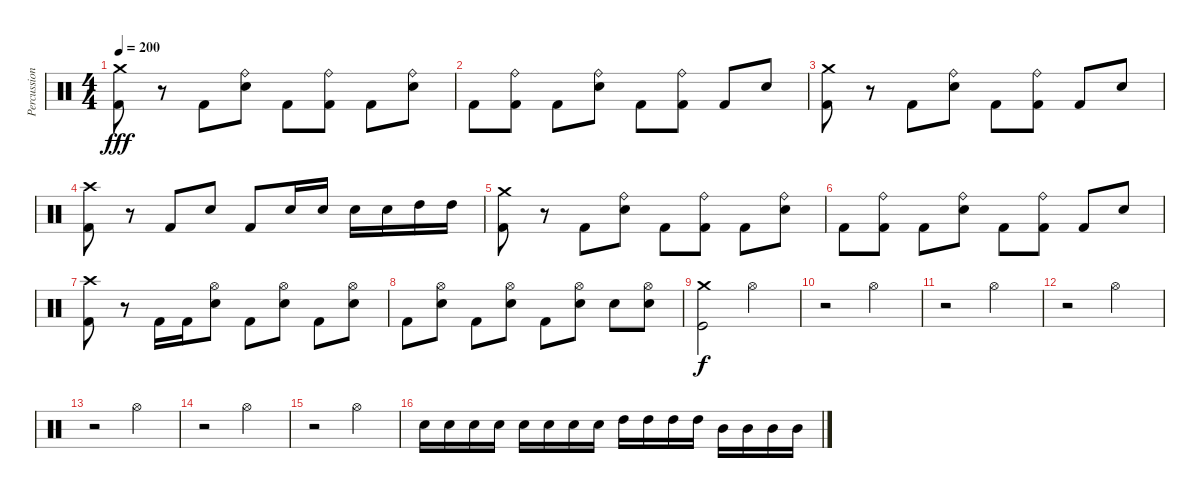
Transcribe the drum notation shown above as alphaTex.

\track ("Percussion" "Percussion") {instrument percussion}
\staff {score}
\articulation defaults
\ts (4 4)
\tempo 200
\clef neutral
\ks c
("Crash medium (hit)" "Kick (hit) 2").8{dy fff} r.8 "Kick (hit) 2".8 ("Ride (bell)" "Snare (hit) 2").8 "Kick (hit) 2".8 ("Ride (bell)" "Kick (hit) 2").8 "Kick (hit) 2".8 ("Ride (bell)" "Snare (hit) 2").8 |
"Kick (hit) 2".8 ("Ride (bell)" "Kick (hit) 2").8 "Kick (hit) 2".8 ("Ride (bell)" "Snare (hit) 2").8 "Kick (hit) 2".8 ("Ride (bell)" "Kick (hit) 2").8 "Kick (hit) 2".8 "Snare (hit) 2".8 |
("Crash medium (hit)" "Kick (hit) 2").8 r.8 "Kick (hit) 2".8 ("Ride (bell)" "Snare (hit) 2").8 "Kick (hit) 2".8 ("Ride (bell)" "Kick (hit) 2").8 "Kick (hit) 2".8 "Snare (hit) 2".8 |
("Crash high (hit)" "Kick (hit) 2").8 r.8 "Kick (hit) 2".8 "Snare (hit) 2".8 "Kick (hit) 2".8 "Snare (hit) 2".16 "Snare (hit) 2".16 "Snare (hit) 2".16 "Snare (hit) 2".16 "High Tom (hit)".16 "High Tom (hit)".16 |
("Crash medium (hit)" "Kick (hit) 2").8 r.8 "Kick (hit) 2".8 ("Ride (bell)" "Snare (hit) 2").8 "Kick (hit) 2".8 ("Ride (bell)" "Kick (hit) 2").8 "Kick (hit) 2".8 ("Ride (bell)" "Snare (hit) 2").8 |
"Kick (hit) 2".8 ("Ride (bell)" "Kick (hit) 2").8 "Kick (hit) 2".8 ("Ride (bell)" "Snare (hit) 2").8 "Kick (hit) 2".8 ("Ride (bell)" "Kick (hit) 2").8 "Kick (hit) 2".8 "Snare (hit) 2".8 |
("Crash high (hit)" "Kick (hit) 2").8 r.8 "Kick (hit) 2".16 "Kick (hit) 2".16 ("Hi-Hat (open)" "Snare (hit) 2").8 "Kick (hit) 2".8 ("Hi-Hat (open)" "Snare (hit) 2").8 "Kick (hit) 2".8 ("Hi-Hat (open)" "Snare (hit) 2").8 |
"Kick (hit) 2".8 ("Hi-Hat (open)" "Snare (hit) 2").8 "Kick (hit) 2".8 ("Hi-Hat (open)" "Snare (hit) 2").8 "Kick (hit) 2".8 ("Hi-Hat (open)" "Snare (hit) 2").8 "Snare (hit) 2".8 ("Hi-Hat (open)" "Snare (hit) 2").8 |
("Crash medium (hit)" "Kick (hit)").2{dy f} "Hi-Hat (open)".2 |
r.2 "Hi-Hat (open)".2 |
r.2 "Hi-Hat (open)".2 |
r.2 "Hi-Hat (open)".2 |
r.2 "Hi-Hat (open)".2 |
r.2 "Hi-Hat (open)".2 |
r.2 "Hi-Hat (open)".2 |
"Snare (hit) 2".16 "Snare (hit) 2".16 "Snare (hit) 2".16 "Snare (hit) 2".16 "Snare (hit) 2".16 "Snare (hit) 2".16 "Snare (hit) 2".16 "Snare (hit) 2".16 "High Tom (hit)".16 "High Tom (hit)".16 "High Tom (hit)".16 "High Tom (hit)".16 "Mid Tom (hit)".16 "Mid Tom (hit)".16 "Mid Tom (hit)".16 "Mid Tom (hit)".16
